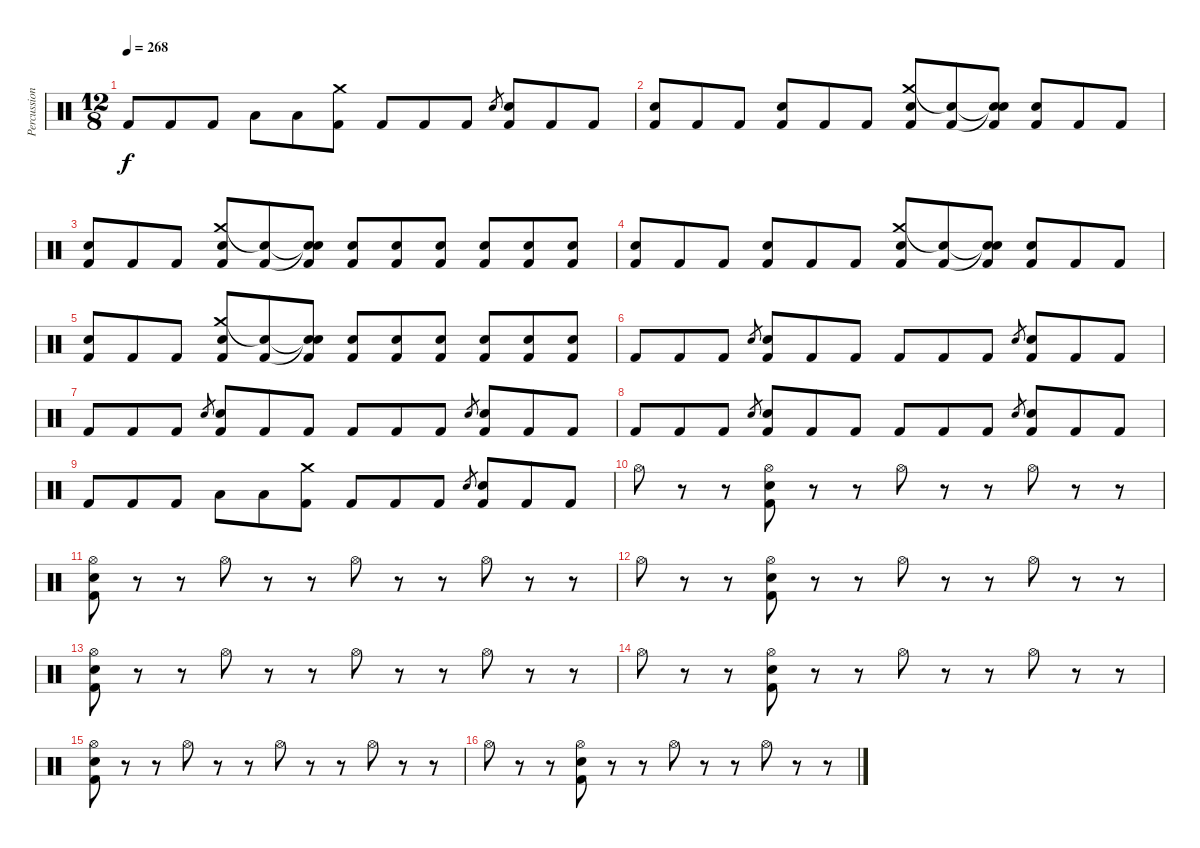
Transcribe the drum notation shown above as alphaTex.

\track ("Percussion" "Percussion") {instrument percussion}
\staff {score}
\articulation defaults
\ts (12 8)
\tempo 268
\clef neutral
\ks c "Kick (hit) 2".8{dy f} "Kick (hit) 2".8 "Kick (hit) 2".8 "Low Tom (hit)".8 "Low Floor Tom (hit)".8
("Crash medium (hit)" "Kick (hit) 2").8 "Kick (hit) 2".8 "Kick (hit) 2".8 "Kick (hit) 2".8 "Electric Snare (hit)".8{gr} ("Electric Snare (hit)" "Kick (hit) 2").8 "Kick (hit) 2".8 "Kick (hit) 2".8 |
("Electric Snare (hit)" "Kick (hit) 2").8 "Kick (hit) 2".8 "Kick (hit) 2".8 ("Electric Snare (hit)" "Kick (hit) 2").8 "Kick (hit) 2".8 "Kick (hit) 2".8 ("Crash medium (hit)" "Electric Snare (hit)" "Kick (hit) 2").8 ("Snare (hit)"{t} "Kick (hit) 2").8 ("Snare (hit)"{t} "Snare (hit)"{t} "Kick (hit) 2").8 ("Electric Snare (hit)" "Kick (hit) 2").8 "Kick (hit) 2".8 "Kick (hit) 2".8 |
("Electric Snare (hit)" "Kick (hit) 2").8 "Kick (hit) 2".8 "Kick (hit) 2".8 ("Crash medium (hit)" "Electric Snare (hit)" "Kick (hit) 2").8 ("Snare (hit)"{t} "Kick (hit) 2").8 ("Snare (hit)"{t} "Snare (hit)"{t} "Kick (hit) 2").8 ("Electric Snare (hit)" "Kick (hit) 2").8 ("Electric Snare (hit)" "Kick (hit) 2").8 ("Electric Snare (hit)" "Kick (hit) 2").8 ("Electric Snare (hit)" "Kick (hit) 2").8 ("Electric Snare (hit)" "Kick (hit) 2").8 ("Electric Snare (hit)" "Kick (hit) 2").8 |
("Electric Snare (hit)" "Kick (hit) 2").8 "Kick (hit) 2".8 "Kick (hit) 2".8 ("Electric Snare (hit)" "Kick (hit) 2").8 "Kick (hit) 2".8 "Kick (hit) 2".8 ("Crash medium (hit)" "Electric Snare (hit)" "Kick (hit) 2").8 ("Snare (hit)"{t} "Kick (hit) 2").8 ("Snare (hit)"{t} "Snare (hit)"{t} "Kick (hit) 2").8 ("Electric Snare (hit)" "Kick (hit) 2").8 "Kick (hit) 2".8 "Kick (hit) 2".8 |
("Electric Snare (hit)" "Kick (hit) 2").8 "Kick (hit) 2".8 "Kick (hit) 2".8 ("Crash medium (hit)" "Electric Snare (hit)" "Kick (hit) 2").8 ("Snare (hit)"{t} "Kick (hit) 2").8 ("Snare (hit)"{t} "Snare (hit)"{t} "Kick (hit) 2").8 ("Electric Snare (hit)" "Kick (hit) 2").8 ("Electric Snare (hit)" "Kick (hit) 2").8 ("Electric Snare (hit)" "Kick (hit) 2").8 ("Electric Snare (hit)" "Kick (hit) 2").8 ("Electric Snare (hit)" "Kick (hit) 2").8 ("Electric Snare (hit)" "Kick (hit) 2").8 |
"Kick (hit) 2".8 "Kick (hit) 2".8 "Kick (hit) 2".8 "Electric Snare (hit)".8{gr} ("Electric Snare (hit)" "Kick (hit) 2").8 "Kick (hit) 2".8 "Kick (hit) 2".8 "Kick (hit) 2".8 "Kick (hit) 2".8 "Kick (hit) 2".8 "Electric Snare (hit)".8{gr} ("Electric Snare (hit)" "Kick (hit) 2").8 "Kick (hit) 2".8 "Kick (hit) 2".8 |
"Kick (hit) 2".8 "Kick (hit) 2".8 "Kick (hit) 2".8 "Electric Snare (hit)".8{gr} ("Electric Snare (hit)" "Kick (hit) 2").8 "Kick (hit) 2".8 "Kick (hit) 2".8 "Kick (hit) 2".8 "Kick (hit) 2".8 "Kick (hit) 2".8 "Electric Snare (hit)".8{gr} ("Electric Snare (hit)" "Kick (hit) 2").8 "Kick (hit) 2".8 "Kick (hit) 2".8 |
"Kick (hit) 2".8 "Kick (hit) 2".8 "Kick (hit) 2".8 "Electric Snare (hit)".8{gr} ("Electric Snare (hit)" "Kick (hit) 2").8 "Kick (hit) 2".8 "Kick (hit) 2".8 "Kick (hit) 2".8 "Kick (hit) 2".8 "Kick (hit) 2".8 "Electric Snare (hit)".8{gr} ("Electric Snare (hit)" "Kick (hit) 2").8 "Kick (hit) 2".8 "Kick (hit) 2".8 |
"Kick (hit) 2".8 "Kick (hit) 2".8 "Kick (hit) 2".8 "Low Tom (hit)".8 "Low Floor Tom (hit)".8 ("Crash medium (hit)" "Kick (hit) 2").8 "Kick (hit) 2".8 "Kick (hit) 2".8 "Kick (hit) 2".8 "Electric Snare (hit)".8{gr} ("Electric Snare (hit)" "Kick (hit) 2").8 "Kick (hit) 2".8 "Kick (hit) 2".8 |
"Hi-Hat (open)".8 r.8 r.8 ("Hi-Hat (open)" "Electric Snare (hit)" "Kick (hit) 2").8 r.8 r.8 "Hi-Hat (open)".8 r.8 r.8 "Hi-Hat (open)".8 r.8 r.8 |
("Hi-Hat (open)" "Electric Snare (hit)" "Kick (hit) 2").8 r.8 r.8 "Hi-Hat (open)".8 r.8 r.8 "Hi-Hat (open)".8 r.8 r.8 "Hi-Hat (open)".8 r.8 r.8 |
"Hi-Hat (open)".8 r.8 r.8 ("Hi-Hat (open)" "Electric Snare (hit)" "Kick (hit) 2").8 r.8 r.8 "Hi-Hat (open)".8 r.8 r.8 "Hi-Hat (open)".8 r.8 r.8 |
("Hi-Hat (open)" "Electric Snare (hit)" "Kick (hit) 2").8 r.8 r.8 "Hi-Hat (open)".8 r.8 r.8 "Hi-Hat (open)".8 r.8 r.8 "Hi-Hat (open)".8 r.8 r.8 |
"Hi-Hat (open)".8 r.8 r.8 ("Hi-Hat (open)" "Electric Snare (hit)" "Kick (hit) 2").8 r.8 r.8 "Hi-Hat (open)".8 r.8 r.8 "Hi-Hat (open)".8 r.8 r.8 |
("Hi-Hat (open)" "Electric Snare (hit)" "Kick (hit) 2").8 r.8 r.8 "Hi-Hat (open)".8 r.8 r.8 "Hi-Hat (open)".8 r.8 r.8 "Hi-Hat (open)".8 r.8 r.8 |
"Hi-Hat (open)".8 r.8 r.8 ("Hi-Hat (open)" "Electric Snare (hit)" "Kick (hit) 2").8 r.8 r.8 "Hi-Hat (open)".8 r.8 r.8 "Hi-Hat (open)".8 r.8 r.8
